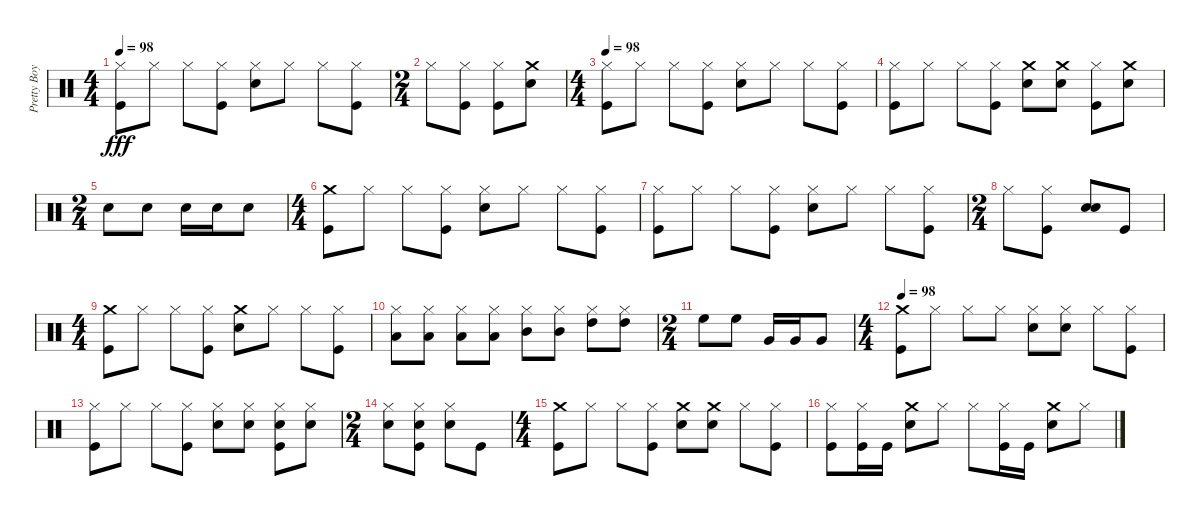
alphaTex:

\track ("Pretty Boy Geoff (Lars Drums)" "Pretty Boy") {instrument percussion}
\staff {score}
\articulation defaults
\ts (4 4)
\tempo 98
\clef neutral
\ks c
("Kick (hit)" "Hi-Hat (closed)").8{dy fff} "Hi-Hat (closed)".8 "Hi-Hat (closed)".8 ("Kick (hit)" "Hi-Hat (closed)").8 ("Hi-Hat (closed)" "Snare (hit) 2").8 "Hi-Hat (closed)".8 "Hi-Hat (closed)".8 ("Kick (hit)" "Hi-Hat (closed)").8 |
\ts (2 4)
"Hi-Hat (closed)".8 ("Hi-Hat (closed)" "Kick (hit)").8 ("Hi-Hat (closed)" "Kick (hit)").8 ("Crash medium (hit)" "Snare (hit) 2").8 |
\ts (4 4)
\tempo 98
("Kick (hit)" "Hi-Hat (closed)").8 "Hi-Hat (closed)".8 "Hi-Hat (closed)".8 ("Kick (hit)" "Hi-Hat (closed)").8 ("Hi-Hat (closed)" "Snare (hit) 2").8 "Hi-Hat (closed)".8 "Hi-Hat (closed)".8 ("Kick (hit)" "Hi-Hat (closed)").8 |
("Hi-Hat (closed)" "Kick (hit)").8 "Hi-Hat (closed)".8 "Hi-Hat (closed)".8 ("Hi-Hat (closed)" "Kick (hit)").8 ("Crash medium (hit)" "Snare (hit) 2").8 ("Crash medium (hit)" "Snare (hit) 2").8 ("Hi-Hat (closed)" "Kick (hit)").8 ("Crash medium (hit)" "Snare (hit) 2").8 |
\ts (2 4)
"Snare (hit) 2".8 "Snare (hit) 2".8 "Snare (hit) 2".16 "Snare (hit) 2".16 "Snare (hit) 2".8 |
\ts (4 4)
("Kick (hit)" "Crash medium (hit)").8 "Hi-Hat (closed)".8 "Hi-Hat (closed)".8 ("Kick (hit)" "Hi-Hat (closed)").8 ("Snare (hit) 2" "Hi-Hat (closed)").8 "Hi-Hat (closed)".8 "Hi-Hat (closed)".8 ("Kick (hit)" "Hi-Hat (closed)").8 |
("Kick (hit)" "Hi-Hat (closed)").8 "Hi-Hat (closed)".8 "Hi-Hat (closed)".8 ("Kick (hit)" "Hi-Hat (closed)").8 ("Hi-Hat (closed)" "Snare (hit) 2").8 "Hi-Hat (closed)".8 "Hi-Hat (closed)".8 ("Kick (hit)" "Hi-Hat (closed)").8 |
\ts (2 4)
"Hi-Hat (closed)".8 ("Kick (hit)" "Hi-Hat (closed)").8 ("Snare (hit) 2" "Snare (hit) 2").8 "Kick (hit)".8 |
\ts (4 4)
("Crash medium (hit)" "Kick (hit)").8 "Hi-Hat (closed)".8 "Hi-Hat (closed)".8 ("Kick (hit)" "Hi-Hat (closed)").8 ("Crash medium (hit)" "Snare (hit) 2").8 "Hi-Hat (closed)".8 "Hi-Hat (closed)".8 ("Kick (hit)" "Hi-Hat (closed)").8 |
("Low Tom (hit)" "Hi-Hat (closed)").8 ("Low Tom (hit)" "Hi-Hat (closed)").8 ("Low Tom (hit)" "Hi-Hat (closed)").8 ("Low Tom (hit)" "Hi-Hat (closed)").8 ("Mid Tom (hit)" "Hi-Hat (closed)").8 ("Mid Tom (hit)" "Hi-Hat (closed)").8 ("High Tom (hit)" "Hi-Hat (closed)").8 ("High Tom (hit)" "Hi-Hat (closed)").8 |
\ts (2 4)
"High Floor Tom (hit)".8 "High Floor Tom (hit)".8 "Very Low Tom (hit)".16 "Very Low Tom (hit)".16 "Very Low Tom (hit)".8 |
\ts (4 4)
\tempo 98
("Crash medium (hit)" "Kick (hit)").8 "Hi-Hat (closed)".8 "Hi-Hat (closed)".8 "Hi-Hat (closed)".8 ("Hi-Hat (closed)" "Snare (hit) 2").8 ("Snare (hit) 2" "Hi-Hat (closed)").8 "Hi-Hat (closed)".8 ("Kick (hit)" "Hi-Hat (closed)").8 |
("Hi-Hat (closed)" "Kick (hit)").8 "Hi-Hat (closed)".8 "Hi-Hat (closed)".8 ("Hi-Hat (closed)" "Kick (hit)").8 ("Snare (hit) 2" "Hi-Hat (closed)").8 ("Snare (hit) 2" "Hi-Hat (closed)").8 ("Snare (hit) 2" "Hi-Hat (closed)" "Kick (hit)").8 ("Snare (hit) 2" "Hi-Hat (closed)").8 |
\ts (2 4)
("Snare (hit) 2" "Hi-Hat (closed)").8 ("Kick (hit)" "Snare (hit) 2" "Hi-Hat (closed)").8 ("Hi-Hat (closed)" "Snare (hit) 2").8 "Kick (hit)".8 |
\ts (4 4)
("Crash medium (hit)" "Kick (hit)").8 "Hi-Hat (closed)".8 "Hi-Hat (closed)".8 ("Kick (hit)" "Hi-Hat (closed)").8 ("Crash medium (hit)" "Snare (hit) 2").8 ("Crash medium (hit)" "Snare (hit) 2").8 "Hi-Hat (closed)".8 ("Kick (hit)" "Hi-Hat (closed)").8 |
("Hi-Hat (closed)" "Kick (hit)").8 ("Hi-Hat (closed)" "Kick (hit)").16 "Kick (hit)".16 ("Crash medium (hit)" "Snare (hit) 2").8 "Hi-Hat (closed)".8 "Hi-Hat (closed)".8 ("Hi-Hat (closed)" "Kick (hit)").16 "Kick (hit)".16 ("Crash medium (hit)" "Snare (hit) 2").8 "Hi-Hat (closed)".8
